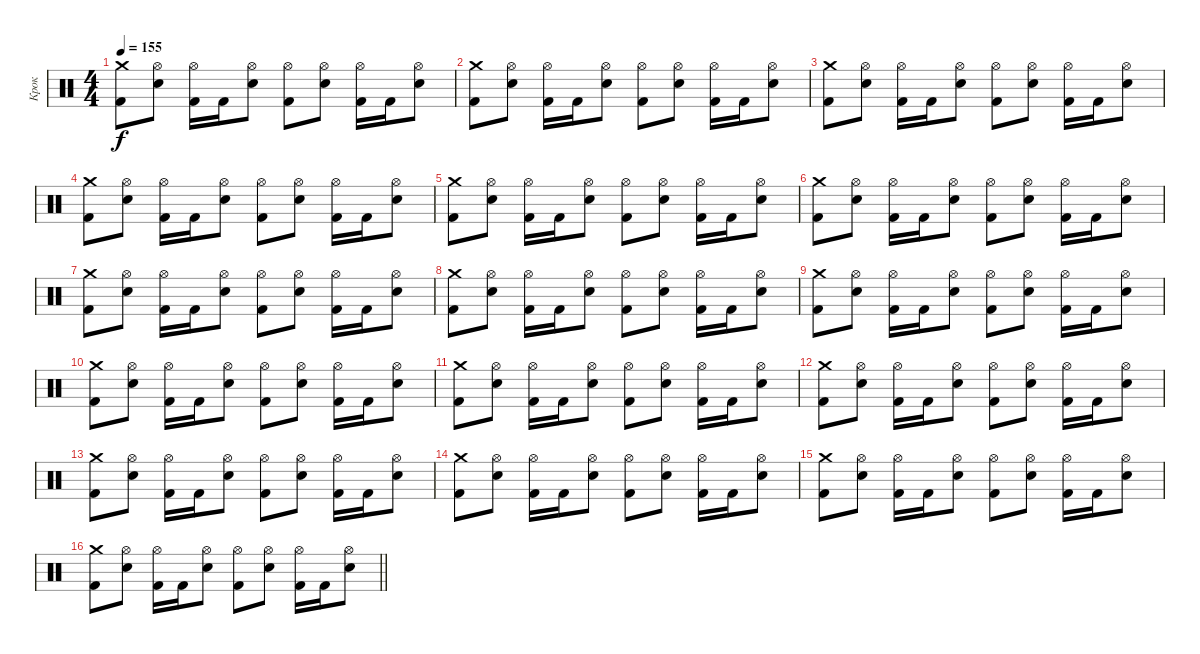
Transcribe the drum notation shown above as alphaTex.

\track ("Крок" "Крок") {instrument percussion}
\staff {score}
\articulation defaults
\ts (4 4)
\tempo 155
\clef neutral
\ks c
("Crash medium (hit)" "Kick (hit) 2").8{dy f} ("Hi-Hat (open)" "Electric Snare (hit)").8 ("Hi-Hat (open)" "Kick (hit) 2").16 "Kick (hit) 2".16 ("Hi-Hat (open)" "Electric Snare (hit)").8 ("Hi-Hat (open)" "Kick (hit) 2").8 ("Hi-Hat (open)" "Electric Snare (hit)").8 ("Hi-Hat (open)" "Kick (hit) 2").16 "Kick (hit) 2".16 ("Hi-Hat (open)" "Electric Snare (hit)").8 |
("Crash medium (hit)" "Kick (hit) 2").8 ("Hi-Hat (open)" "Electric Snare (hit)").8 ("Hi-Hat (open)" "Kick (hit) 2").16 "Kick (hit) 2".16 ("Hi-Hat (open)" "Electric Snare (hit)").8 ("Hi-Hat (open)" "Kick (hit) 2").8 ("Hi-Hat (open)" "Electric Snare (hit)").8 ("Hi-Hat (open)" "Kick (hit) 2").16 "Kick (hit) 2".16 ("Hi-Hat (open)" "Electric Snare (hit)").8 |
("Crash medium (hit)" "Kick (hit) 2").8 ("Hi-Hat (open)" "Electric Snare (hit)").8 ("Hi-Hat (open)" "Kick (hit) 2").16 "Kick (hit) 2".16 ("Hi-Hat (open)" "Electric Snare (hit)").8 ("Hi-Hat (open)" "Kick (hit) 2").8 ("Hi-Hat (open)" "Electric Snare (hit)").8 ("Hi-Hat (open)" "Kick (hit) 2").16 "Kick (hit) 2".16 ("Hi-Hat (open)" "Electric Snare (hit)").8 |
("Crash medium (hit)" "Kick (hit) 2").8 ("Hi-Hat (open)" "Electric Snare (hit)").8 ("Hi-Hat (open)" "Kick (hit) 2").16 "Kick (hit) 2".16 ("Hi-Hat (open)" "Electric Snare (hit)").8 ("Hi-Hat (open)" "Kick (hit) 2").8 ("Hi-Hat (open)" "Electric Snare (hit)").8 ("Hi-Hat (open)" "Kick (hit) 2").16 "Kick (hit) 2".16 ("Hi-Hat (open)" "Electric Snare (hit)").8 |
("Crash medium (hit)" "Kick (hit) 2").8 ("Hi-Hat (open)" "Electric Snare (hit)").8 ("Hi-Hat (open)" "Kick (hit) 2").16 "Kick (hit) 2".16 ("Hi-Hat (open)" "Electric Snare (hit)").8 ("Hi-Hat (open)" "Kick (hit) 2").8 ("Hi-Hat (open)" "Electric Snare (hit)").8 ("Hi-Hat (open)" "Kick (hit) 2").16 "Kick (hit) 2".16 ("Hi-Hat (open)" "Electric Snare (hit)").8 |
("Crash medium (hit)" "Kick (hit) 2").8 ("Hi-Hat (open)" "Electric Snare (hit)").8 ("Hi-Hat (open)" "Kick (hit) 2").16 "Kick (hit) 2".16 ("Hi-Hat (open)" "Electric Snare (hit)").8 ("Hi-Hat (open)" "Kick (hit) 2").8 ("Hi-Hat (open)" "Electric Snare (hit)").8 ("Hi-Hat (open)" "Kick (hit) 2").16 "Kick (hit) 2".16 ("Hi-Hat (open)" "Electric Snare (hit)").8 |
("Crash medium (hit)" "Kick (hit) 2").8 ("Hi-Hat (open)" "Electric Snare (hit)").8 ("Hi-Hat (open)" "Kick (hit) 2").16 "Kick (hit) 2".16 ("Hi-Hat (open)" "Electric Snare (hit)").8 ("Hi-Hat (open)" "Kick (hit) 2").8 ("Hi-Hat (open)" "Electric Snare (hit)").8 ("Hi-Hat (open)" "Kick (hit) 2").16 "Kick (hit) 2".16 ("Hi-Hat (open)" "Electric Snare (hit)").8 |
("Crash medium (hit)" "Kick (hit) 2").8 ("Hi-Hat (open)" "Electric Snare (hit)").8 ("Hi-Hat (open)" "Kick (hit) 2").16 "Kick (hit) 2".16 ("Hi-Hat (open)" "Electric Snare (hit)").8 ("Hi-Hat (open)" "Kick (hit) 2").8 ("Hi-Hat (open)" "Electric Snare (hit)").8 ("Hi-Hat (open)" "Kick (hit) 2").16 "Kick (hit) 2".16 ("Hi-Hat (open)" "Electric Snare (hit)").8 |
("Crash medium (hit)" "Kick (hit) 2").8 ("Hi-Hat (open)" "Electric Snare (hit)").8 ("Hi-Hat (open)" "Kick (hit) 2").16 "Kick (hit) 2".16 ("Hi-Hat (open)" "Electric Snare (hit)").8 ("Hi-Hat (open)" "Kick (hit) 2").8 ("Hi-Hat (open)" "Electric Snare (hit)").8 ("Hi-Hat (open)" "Kick (hit) 2").16 "Kick (hit) 2".16 ("Hi-Hat (open)" "Electric Snare (hit)").8 |
("Crash medium (hit)" "Kick (hit) 2").8 ("Hi-Hat (open)" "Electric Snare (hit)").8 ("Hi-Hat (open)" "Kick (hit) 2").16 "Kick (hit) 2".16 ("Hi-Hat (open)" "Electric Snare (hit)").8 ("Hi-Hat (open)" "Kick (hit) 2").8 ("Hi-Hat (open)" "Electric Snare (hit)").8 ("Hi-Hat (open)" "Kick (hit) 2").16 "Kick (hit) 2".16 ("Hi-Hat (open)" "Electric Snare (hit)").8 |
("Crash medium (hit)" "Kick (hit) 2").8 ("Hi-Hat (open)" "Electric Snare (hit)").8 ("Hi-Hat (open)" "Kick (hit) 2").16 "Kick (hit) 2".16 ("Hi-Hat (open)" "Electric Snare (hit)").8 ("Hi-Hat (open)" "Kick (hit) 2").8 ("Hi-Hat (open)" "Electric Snare (hit)").8 ("Hi-Hat (open)" "Kick (hit) 2").16 "Kick (hit) 2".16 ("Hi-Hat (open)" "Electric Snare (hit)").8 |
("Crash medium (hit)" "Kick (hit) 2").8 ("Hi-Hat (open)" "Electric Snare (hit)").8 ("Hi-Hat (open)" "Kick (hit) 2").16 "Kick (hit) 2".16 ("Hi-Hat (open)" "Electric Snare (hit)").8 ("Hi-Hat (open)" "Kick (hit) 2").8 ("Hi-Hat (open)" "Electric Snare (hit)").8 ("Hi-Hat (open)" "Kick (hit) 2").16 "Kick (hit) 2".16 ("Hi-Hat (open)" "Electric Snare (hit)").8 |
("Crash medium (hit)" "Kick (hit) 2").8 ("Hi-Hat (open)" "Electric Snare (hit)").8 ("Hi-Hat (open)" "Kick (hit) 2").16 "Kick (hit) 2".16 ("Hi-Hat (open)" "Electric Snare (hit)").8 ("Hi-Hat (open)" "Kick (hit) 2").8 ("Hi-Hat (open)" "Electric Snare (hit)").8 ("Hi-Hat (open)" "Kick (hit) 2").16 "Kick (hit) 2".16 ("Hi-Hat (open)" "Electric Snare (hit)").8 |
("Crash medium (hit)" "Kick (hit) 2").8 ("Hi-Hat (open)" "Electric Snare (hit)").8 ("Hi-Hat (open)" "Kick (hit) 2").16 "Kick (hit) 2".16 ("Hi-Hat (open)" "Electric Snare (hit)").8 ("Hi-Hat (open)" "Kick (hit) 2").8 ("Hi-Hat (open)" "Electric Snare (hit)").8 ("Hi-Hat (open)" "Kick (hit) 2").16 "Kick (hit) 2".16 ("Hi-Hat (open)" "Electric Snare (hit)").8 |
("Crash medium (hit)" "Kick (hit) 2").8 ("Hi-Hat (open)" "Electric Snare (hit)").8 ("Hi-Hat (open)" "Kick (hit) 2").16 "Kick (hit) 2".16 ("Hi-Hat (open)" "Electric Snare (hit)").8 ("Hi-Hat (open)" "Kick (hit) 2").8 ("Hi-Hat (open)" "Electric Snare (hit)").8 ("Hi-Hat (open)" "Kick (hit) 2").16 "Kick (hit) 2".16 ("Hi-Hat (open)" "Electric Snare (hit)").8 |
\barLineRight lightlight
("Crash medium (hit)" "Kick (hit) 2").8 ("Hi-Hat (open)" "Electric Snare (hit)").8 ("Hi-Hat (open)" "Kick (hit) 2").16 "Kick (hit) 2".16 ("Hi-Hat (open)" "Electric Snare (hit)").8 ("Hi-Hat (open)" "Kick (hit) 2").8 ("Hi-Hat (open)" "Electric Snare (hit)").8 ("Hi-Hat (open)" "Kick (hit) 2").16 "Kick (hit) 2".16 ("Hi-Hat (open)" "Electric Snare (hit)").8
